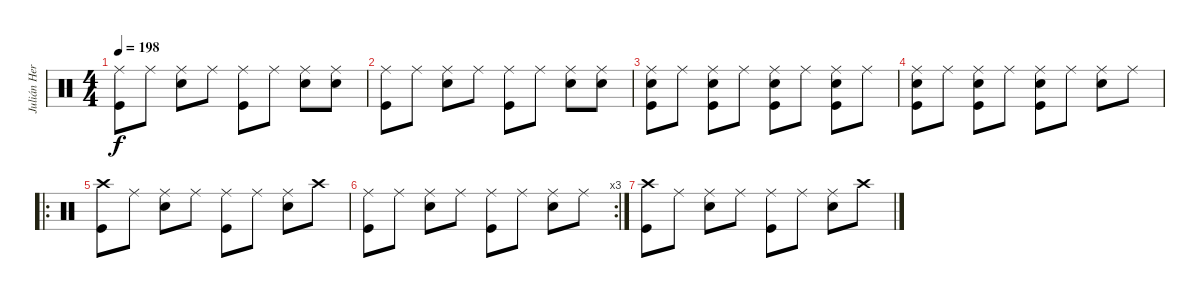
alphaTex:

\track ("Julián Hernández - Batería" "Julián Her") {instrument percussion}
\staff {score}
\articulation defaults
\ts (4 4)
\tempo 198
\clef neutral
\ks c
("Ride (middle)" "Kick (hit)").8{dy f} "Ride (middle)".8 ("Ride (middle)" "Electric Snare (hit)").8 "Ride (middle)".8 ("Ride (middle)" "Kick (hit)").8 "Ride (middle)".8 ("Ride (middle)" "Electric Snare (hit)").8 ("Ride (middle)" "Electric Snare (hit)").8 |
("Ride (middle)" "Kick (hit)").8 "Ride (middle)".8 ("Ride (middle)" "Electric Snare (hit)").8 "Ride (middle)".8 ("Ride (middle)" "Kick (hit)").8 "Ride (middle)".8 ("Ride (middle)" "Electric Snare (hit)").8 ("Ride (middle)" "Electric Snare (hit)").8 |
("Ride (middle)" "Electric Snare (hit)" "Kick (hit)").8 "Ride (middle)".8 ("Ride (middle)" "Electric Snare (hit)" "Kick (hit)").8 "Ride (middle)".8 ("Ride (middle)" "Electric Snare (hit)" "Kick (hit)").8 "Ride (middle)".8 ("Ride (middle)" "Electric Snare (hit)" "Kick (hit)").8 "Ride (middle)".8 |
("Ride (middle)" "Electric Snare (hit)" "Kick (hit)").8 "Ride (middle)".8 ("Ride (middle)" "Electric Snare (hit)" "Kick (hit)").8 "Ride (middle)".8 ("Ride (middle)" "Electric Snare (hit)" "Kick (hit)").8 "Ride (middle)".8 ("Ride (middle)" "Electric Snare (hit)").8 "Ride (middle)".8 |
\ro
("Crash high (hit)" "Kick (hit)").8 "Ride (middle)".8 ("Ride (middle)" "Electric Snare (hit)").8 "Ride (middle)".8 ("Ride (middle)" "Kick (hit)").8 "Ride (middle)".8 ("Ride (middle)" "Electric Snare (hit)").8 "Crash high (hit)".8 |
\rc 3
("Ride (middle)" "Kick (hit)").8 "Ride (middle)".8 ("Ride (middle)" "Electric Snare (hit)").8 "Ride (middle)".8 ("Ride (middle)" "Kick (hit)").8 "Ride (middle)".8 ("Ride (middle)" "Electric Snare (hit)").8 "Ride (middle)".8 |
("Crash high (hit)" "Kick (hit)").8 "Ride (middle)".8 ("Ride (middle)" "Electric Snare (hit)").8 "Ride (middle)".8 ("Ride (middle)" "Kick (hit)").8 "Ride (middle)".8 ("Ride (middle)" "Electric Snare (hit)").8 "Crash high (hit)".8
